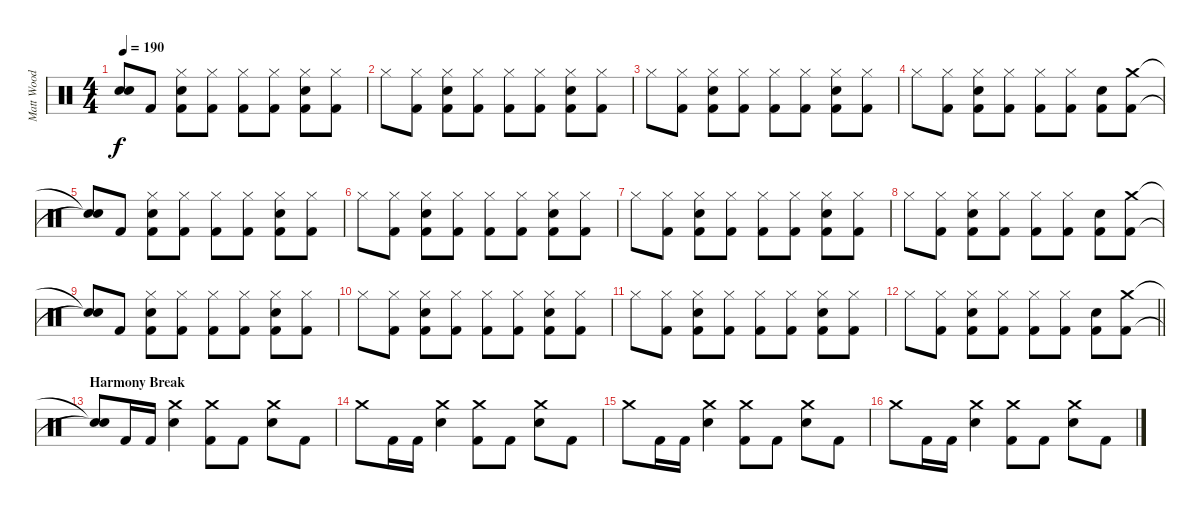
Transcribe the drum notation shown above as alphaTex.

\track ("Matt Wood" "Matt Wood") {instrument percussion}
\staff {score}
\articulation defaults
\ts (4 4)
\tempo 190
\clef neutral
\ks c
("Snare (hit)"{t} "Snare (hit)"{t}).8{dy f} "Kick (hit) 2".8 ("Hi-Hat (closed)" "Snare (hit) 2" "Kick (hit) 2").8 ("Hi-Hat (closed)" "Kick (hit) 2").8 ("Hi-Hat (closed)" "Kick (hit) 2").8 ("Hi-Hat (closed)" "Kick (hit) 2").8 ("Hi-Hat (closed)" "Snare (hit) 2" "Kick (hit) 2").8 ("Hi-Hat (closed)" "Kick (hit) 2").8 |
"Hi-Hat (closed)".8 ("Hi-Hat (closed)" "Kick (hit) 2").8 ("Hi-Hat (closed)" "Snare (hit) 2" "Kick (hit) 2").8 ("Hi-Hat (closed)" "Kick (hit) 2").8 ("Hi-Hat (closed)" "Kick (hit) 2").8 ("Hi-Hat (closed)" "Kick (hit) 2").8 ("Hi-Hat (closed)" "Snare (hit) 2" "Kick (hit) 2").8 ("Hi-Hat (closed)" "Kick (hit) 2").8 |
"Hi-Hat (closed)".8 ("Hi-Hat (closed)" "Kick (hit) 2").8 ("Hi-Hat (closed)" "Snare (hit) 2" "Kick (hit) 2").8 ("Hi-Hat (closed)" "Kick (hit) 2").8 ("Hi-Hat (closed)" "Kick (hit) 2").8 ("Hi-Hat (closed)" "Kick (hit) 2").8 ("Hi-Hat (closed)" "Snare (hit) 2" "Kick (hit) 2").8 ("Hi-Hat (closed)" "Kick (hit) 2").8 |
"Hi-Hat (closed)".8 ("Hi-Hat (closed)" "Kick (hit) 2").8 ("Hi-Hat (closed)" "Snare (hit) 2" "Kick (hit) 2").8 ("Hi-Hat (closed)" "Kick (hit) 2").8 ("Hi-Hat (closed)" "Kick (hit) 2").8 ("Hi-Hat (closed)" "Kick (hit) 2").8 ("Snare (hit) 2" "Kick (hit) 2").8 ("Crash medium (hit)" "Kick (hit) 2").8 |
("Snare (hit)"{t} "Snare (hit)"{t}).8 "Kick (hit) 2".8 ("Hi-Hat (closed)" "Snare (hit) 2" "Kick (hit) 2").8 ("Hi-Hat (closed)" "Kick (hit) 2").8 ("Hi-Hat (closed)" "Kick (hit) 2").8 ("Hi-Hat (closed)" "Kick (hit) 2").8 ("Hi-Hat (closed)" "Snare (hit) 2" "Kick (hit) 2").8 ("Hi-Hat (closed)" "Kick (hit) 2").8 |
"Hi-Hat (closed)".8 ("Hi-Hat (closed)" "Kick (hit) 2").8 ("Hi-Hat (closed)" "Snare (hit) 2" "Kick (hit) 2").8 ("Hi-Hat (closed)" "Kick (hit) 2").8 ("Hi-Hat (closed)" "Kick (hit) 2").8 ("Hi-Hat (closed)" "Kick (hit) 2").8 ("Hi-Hat (closed)" "Snare (hit) 2" "Kick (hit) 2").8 ("Hi-Hat (closed)" "Kick (hit) 2").8 |
"Hi-Hat (closed)".8 ("Hi-Hat (closed)" "Kick (hit) 2").8 ("Hi-Hat (closed)" "Snare (hit) 2" "Kick (hit) 2").8 ("Hi-Hat (closed)" "Kick (hit) 2").8 ("Hi-Hat (closed)" "Kick (hit) 2").8 ("Hi-Hat (closed)" "Kick (hit) 2").8 ("Hi-Hat (closed)" "Snare (hit) 2" "Kick (hit) 2").8 ("Hi-Hat (closed)" "Kick (hit) 2").8 |
"Hi-Hat (closed)".8 ("Hi-Hat (closed)" "Kick (hit) 2").8 ("Hi-Hat (closed)" "Snare (hit) 2" "Kick (hit) 2").8 ("Hi-Hat (closed)" "Kick (hit) 2").8 ("Hi-Hat (closed)" "Kick (hit) 2").8 ("Hi-Hat (closed)" "Kick (hit) 2").8 ("Snare (hit) 2" "Kick (hit) 2").8 ("Crash medium (hit)" "Kick (hit) 2").8 |
("Snare (hit)"{t} "Snare (hit)"{t}).8 "Kick (hit) 2".8 ("Hi-Hat (closed)" "Snare (hit) 2" "Kick (hit) 2").8 ("Hi-Hat (closed)" "Kick (hit) 2").8 ("Hi-Hat (closed)" "Kick (hit) 2").8 ("Hi-Hat (closed)" "Kick (hit) 2").8 ("Hi-Hat (closed)" "Snare (hit) 2" "Kick (hit) 2").8 ("Hi-Hat (closed)" "Kick (hit) 2").8 |
"Hi-Hat (closed)".8 ("Hi-Hat (closed)" "Kick (hit) 2").8 ("Hi-Hat (closed)" "Snare (hit) 2" "Kick (hit) 2").8 ("Hi-Hat (closed)" "Kick (hit) 2").8 ("Hi-Hat (closed)" "Kick (hit) 2").8 ("Hi-Hat (closed)" "Kick (hit) 2").8 ("Hi-Hat (closed)" "Snare (hit) 2" "Kick (hit) 2").8 ("Hi-Hat (closed)" "Kick (hit) 2").8 |
"Hi-Hat (closed)".8 ("Hi-Hat (closed)" "Kick (hit) 2").8 ("Hi-Hat (closed)" "Snare (hit) 2" "Kick (hit) 2").8 ("Hi-Hat (closed)" "Kick (hit) 2").8 ("Hi-Hat (closed)" "Kick (hit) 2").8 ("Hi-Hat (closed)" "Kick (hit) 2").8 ("Hi-Hat (closed)" "Snare (hit) 2" "Kick (hit) 2").8 ("Hi-Hat (closed)" "Kick (hit) 2").8 |
\barLineRight lightlight "Hi-Hat (closed)".8
("Hi-Hat (closed)" "Kick (hit) 2").8 ("Hi-Hat (closed)" "Snare (hit) 2" "Kick (hit) 2").8 ("Hi-Hat (closed)" "Kick (hit) 2").8 ("Hi-Hat (closed)" "Kick (hit) 2").8 ("Hi-Hat (closed)" "Kick (hit) 2").8 ("Snare (hit) 2" "Kick (hit) 2").8 ("Crash medium (hit)" "Kick (hit) 2").8 |
\section ("" "Harmony Break")
("Snare (hit)"{t} "Snare (hit)"{t}).8 "Kick (hit) 2".16 "Kick (hit) 2".16 ("Crash medium (hit)" "Snare (hit) 2").4 ("Crash medium (hit)" "Kick (hit) 2").8 "Kick (hit) 2".8 ("Crash medium (hit)" "Snare (hit) 2").8 "Kick (hit) 2".8 |
"Crash medium (hit)".8 "Kick (hit) 2".16 "Kick (hit) 2".16 ("Crash medium (hit)" "Snare (hit) 2").4 ("Crash medium (hit)" "Kick (hit) 2").8 "Kick (hit) 2".8 ("Crash medium (hit)" "Snare (hit) 2").8 "Kick (hit) 2".8 |
"Crash medium (hit)".8 "Kick (hit) 2".16 "Kick (hit) 2".16 ("Crash medium (hit)" "Snare (hit) 2").4 ("Crash medium (hit)" "Kick (hit) 2").8 "Kick (hit) 2".8 ("Crash medium (hit)" "Snare (hit) 2").8 "Kick (hit) 2".8 |
"Crash medium (hit)".8 "Kick (hit) 2".16 "Kick (hit) 2".16 ("Crash medium (hit)" "Snare (hit) 2").4 ("Crash medium (hit)" "Kick (hit) 2").8 "Kick (hit) 2".8 ("Crash medium (hit)" "Snare (hit) 2").8 "Kick (hit) 2".8
